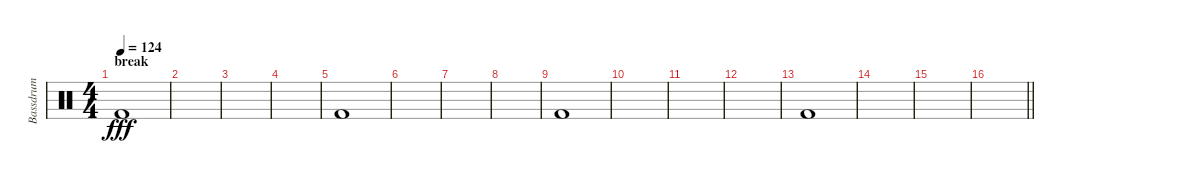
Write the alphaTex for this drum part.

\track ("Bassdrum" "Bassdrum") {instrument percussion}
\staff {score}
\articulation defaults
\ts (4 4)
\section ("" "break")
\tempo 124
\clef neutral
\ks c "Kick (hit) 2".1{dy fff}
|
|
|
|
"Kick (hit) 2".1 |
|
|
|
"Kick (hit) 2".1 |
|
|
|
"Kick (hit) 2".1 |
|
|
\barLineRight lightlight
